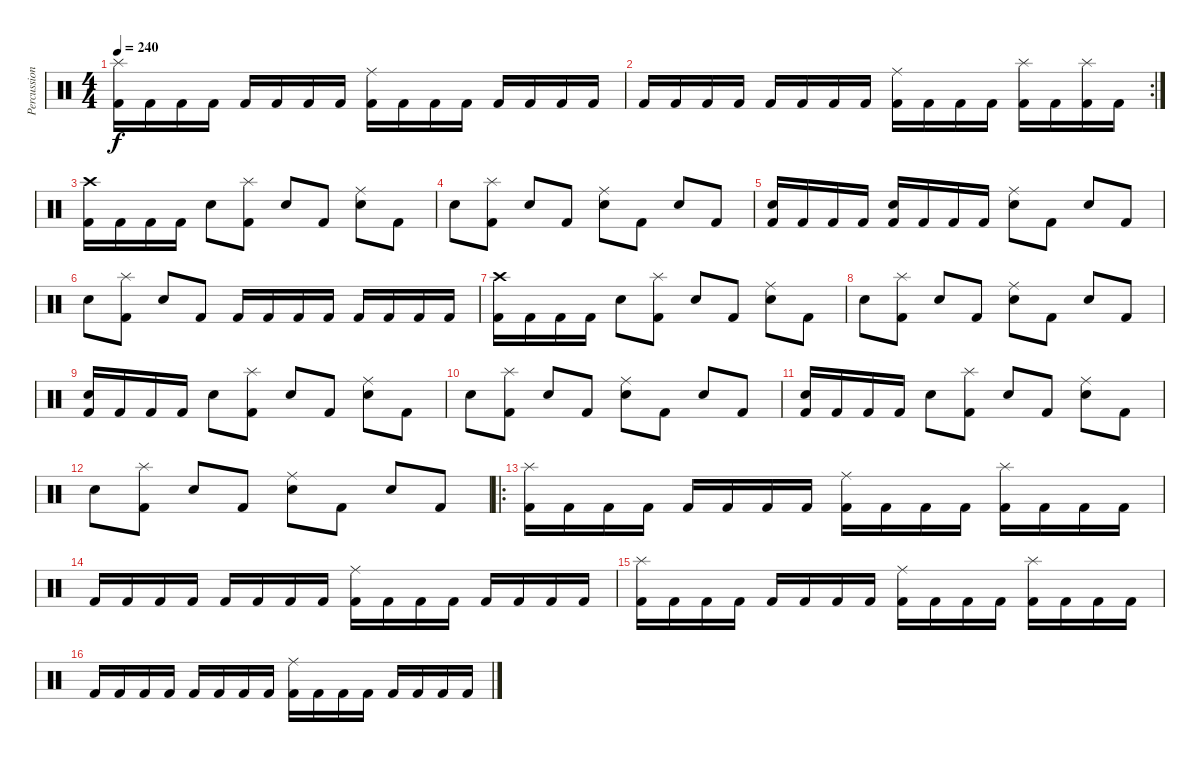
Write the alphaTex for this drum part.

\track ("Percussion" "Percussion") {instrument percussion}
\staff {score}
\articulation defaults
\ts (4 4)
\tempo 240
\clef neutral
\ks c
("Kick (hit) 2" "Splash (hit)").16{dy f} "Kick (hit) 2".16 "Kick (hit) 2".16 "Kick (hit) 2".16 "Kick (hit) 2".16 "Kick (hit) 2".16 "Kick (hit) 2".16 "Kick (hit) 2".16 ("Kick (hit) 2" "Ride (middle)").16 "Kick (hit) 2".16 "Kick (hit) 2".16 "Kick (hit) 2".16 "Kick (hit) 2".16 "Kick (hit) 2".16 "Kick (hit) 2".16 "Kick (hit) 2".16 |
\rc 2 "Kick (hit) 2".16 "Kick (hit) 2".16 "Kick (hit) 2".16 "Kick (hit) 2".16 "Kick (hit) 2".16 "Kick (hit) 2".16 "Kick (hit) 2".16 "Kick (hit) 2".16
("Kick (hit) 2" "Ride (middle)").16 "Kick (hit) 2".16 "Kick (hit) 2".16 "Kick (hit) 2".16 ("Kick (hit) 2" "Splash (hit)").16 "Kick (hit) 2".16 ("Kick (hit) 2" "Splash (hit)").16 "Kick (hit) 2".16 |
("Kick (hit) 2" "Crash high (hit)").16 "Kick (hit) 2".16 "Kick (hit) 2".16 "Kick (hit) 2".16 "Electric Snare (hit)".8 ("Kick (hit) 2" "Splash (hit)").8 "Electric Snare (hit)".8 "Kick (hit) 2".8 ("Electric Snare (hit)" "Ride (middle)").8 "Kick (hit) 2".8 |
"Electric Snare (hit)".8 ("Kick (hit) 2" "Splash (hit)").8 "Electric Snare (hit)".8 "Kick (hit) 2".8 ("Electric Snare (hit)" "Ride (middle)").8 "Kick (hit) 2".8 "Electric Snare (hit)".8 "Kick (hit) 2".8 |
("Kick (hit) 2" "Electric Snare (hit)").16 "Kick (hit) 2".16 "Kick (hit) 2".16 "Kick (hit) 2".16 ("Kick (hit) 2" "Electric Snare (hit)").16 "Kick (hit) 2".16 "Kick (hit) 2".16 "Kick (hit) 2".16 ("Electric Snare (hit)" "Ride (middle)").8 "Kick (hit) 2".8 "Electric Snare (hit)".8 "Kick (hit) 2".8 |
"Electric Snare (hit)".8 ("Kick (hit) 2" "Splash (hit)").8 "Electric Snare (hit)".8 "Kick (hit) 2".8 "Kick (hit) 2".16 "Kick (hit) 2".16 "Kick (hit) 2".16 "Kick (hit) 2".16 "Kick (hit) 2".16 "Kick (hit) 2".16 "Kick (hit) 2".16 "Kick (hit) 2".16 |
("Kick (hit) 2" "Crash high (hit)").16 "Kick (hit) 2".16 "Kick (hit) 2".16 "Kick (hit) 2".16 "Electric Snare (hit)".8 ("Kick (hit) 2" "Splash (hit)").8 "Electric Snare (hit)".8 "Kick (hit) 2".8 ("Electric Snare (hit)" "Ride (middle)").8 "Kick (hit) 2".8 |
"Electric Snare (hit)".8 ("Kick (hit) 2" "Splash (hit)").8 "Electric Snare (hit)".8 "Kick (hit) 2".8 ("Electric Snare (hit)" "Ride (middle)").8 "Kick (hit) 2".8 "Electric Snare (hit)".8 "Kick (hit) 2".8 |
("Kick (hit) 2" "Electric Snare (hit)").16 "Kick (hit) 2".16 "Kick (hit) 2".16 "Kick (hit) 2".16 "Electric Snare (hit)".8 ("Kick (hit) 2" "Splash (hit)").8 "Electric Snare (hit)".8 "Kick (hit) 2".8 ("Electric Snare (hit)" "Ride (middle)").8 "Kick (hit) 2".8 |
"Electric Snare (hit)".8 ("Kick (hit) 2" "Splash (hit)").8 "Electric Snare (hit)".8 "Kick (hit) 2".8 ("Electric Snare (hit)" "Ride (middle)").8 "Kick (hit) 2".8 "Electric Snare (hit)".8 "Kick (hit) 2".8 |
("Kick (hit) 2" "Electric Snare (hit)").16 "Kick (hit) 2".16 "Kick (hit) 2".16 "Kick (hit) 2".16 "Electric Snare (hit)".8 ("Kick (hit) 2" "Splash (hit)").8 "Electric Snare (hit)".8 "Kick (hit) 2".8 ("Electric Snare (hit)" "Ride (middle)").8 "Kick (hit) 2".8 |
"Electric Snare (hit)".8 ("Kick (hit) 2" "Splash (hit)").8 "Electric Snare (hit)".8 "Kick (hit) 2".8 ("Electric Snare (hit)" "Ride (middle)").8 "Kick (hit) 2".8 "Electric Snare (hit)".8 "Kick (hit) 2".8 |
\ro
("Kick (hit) 2" "Splash (hit)").16 "Kick (hit) 2".16 "Kick (hit) 2".16 "Kick (hit) 2".16 "Kick (hit) 2".16 "Kick (hit) 2".16 "Kick (hit) 2".16 "Kick (hit) 2".16 ("Kick (hit) 2" "Ride (middle)").16 "Kick (hit) 2".16 "Kick (hit) 2".16 "Kick (hit) 2".16 ("Kick (hit) 2" "Splash (hit)").16 "Kick (hit) 2".16 "Kick (hit) 2".16 "Kick (hit) 2".16 |
"Kick (hit) 2".16 "Kick (hit) 2".16 "Kick (hit) 2".16 "Kick (hit) 2".16 "Kick (hit) 2".16 "Kick (hit) 2".16 "Kick (hit) 2".16 "Kick (hit) 2".16 ("Kick (hit) 2" "Ride (middle)").16 "Kick (hit) 2".16 "Kick (hit) 2".16 "Kick (hit) 2".16 "Kick (hit) 2".16 "Kick (hit) 2".16 "Kick (hit) 2".16 "Kick (hit) 2".16 |
("Kick (hit) 2" "Splash (hit)").16 "Kick (hit) 2".16 "Kick (hit) 2".16 "Kick (hit) 2".16 "Kick (hit) 2".16 "Kick (hit) 2".16 "Kick (hit) 2".16 "Kick (hit) 2".16 ("Kick (hit) 2" "Ride (middle)").16 "Kick (hit) 2".16 "Kick (hit) 2".16 "Kick (hit) 2".16 ("Kick (hit) 2" "Splash (hit)").16 "Kick (hit) 2".16 "Kick (hit) 2".16 "Kick (hit) 2".16 |
"Kick (hit) 2".16 "Kick (hit) 2".16 "Kick (hit) 2".16 "Kick (hit) 2".16 "Kick (hit) 2".16 "Kick (hit) 2".16 "Kick (hit) 2".16 "Kick (hit) 2".16 ("Kick (hit) 2" "Ride (middle)").16 "Kick (hit) 2".16 "Kick (hit) 2".16 "Kick (hit) 2".16 "Kick (hit) 2".16 "Kick (hit) 2".16 "Kick (hit) 2".16 "Kick (hit) 2".16
